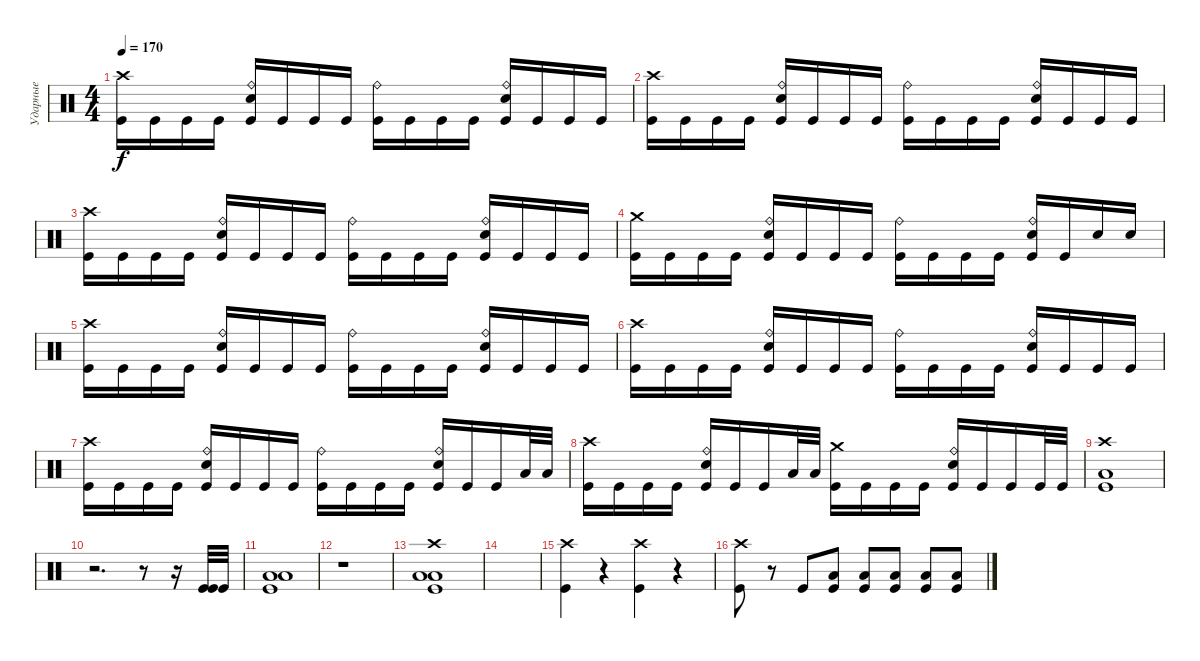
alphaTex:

\track ("Ударные" "Ударные") {instrument percussion}
\staff {score}
\articulation defaults
\ts (4 4)
\tempo 170
\clef neutral
\ks c
("Crash high (hit)" "Kick (hit)").16{dy f} "Kick (hit)".16 "Kick (hit)".16 "Kick (hit)".16 ("Ride (bell)" "Electric Snare (hit)" "Kick (hit)").16 "Kick (hit)".16 "Kick (hit)".16 "Kick (hit)".16 ("Ride (bell)" "Kick (hit)").16 "Kick (hit)".16 "Kick (hit)".16 "Kick (hit)".16 ("Ride (bell)" "Electric Snare (hit)" "Kick (hit)").16 "Kick (hit)".16 "Kick (hit)".16 "Kick (hit)".16 |
("Crash high (hit)" "Kick (hit)").16 "Kick (hit)".16 "Kick (hit)".16 "Kick (hit)".16 ("Ride (bell)" "Electric Snare (hit)" "Kick (hit)").16 "Kick (hit)".16 "Kick (hit)".16 "Kick (hit)".16 ("Ride (bell)" "Kick (hit)").16 "Kick (hit)".16 "Kick (hit)".16 "Kick (hit)".16 ("Ride (bell)" "Electric Snare (hit)" "Kick (hit)").16 "Kick (hit)".16 "Kick (hit)".16 "Kick (hit)".16 |
("Crash high (hit)" "Kick (hit)").16 "Kick (hit)".16 "Kick (hit)".16 "Kick (hit)".16 ("Ride (bell)" "Electric Snare (hit)" "Kick (hit)").16 "Kick (hit)".16 "Kick (hit)".16 "Kick (hit)".16 ("Ride (bell)" "Kick (hit)").16 "Kick (hit)".16 "Kick (hit)".16 "Kick (hit)".16 ("Ride (bell)" "Electric Snare (hit)" "Kick (hit)").16 "Kick (hit)".16 "Kick (hit)".16 "Kick (hit)".16 |
("Crash medium (hit)" "Kick (hit)").16 "Kick (hit)".16 "Kick (hit)".16 "Kick (hit)".16 ("Ride (bell)" "Electric Snare (hit)" "Kick (hit)").16 "Kick (hit)".16 "Kick (hit)".16 "Kick (hit)".16 ("Ride (bell)" "Kick (hit)").16 "Kick (hit)".16 "Kick (hit)".16 "Kick (hit)".16 ("Ride (bell)" "Electric Snare (hit)" "Kick (hit)").16 "Kick (hit)".16 "Electric Snare (hit)".16 "Electric Snare (hit)".16 |
("Crash high (hit)" "Kick (hit)").16 "Kick (hit)".16 "Kick (hit)".16 "Kick (hit)".16 ("Ride (bell)" "Electric Snare (hit)" "Kick (hit)").16 "Kick (hit)".16 "Kick (hit)".16 "Kick (hit)".16 ("Ride (bell)" "Kick (hit)").16 "Kick (hit)".16 "Kick (hit)".16 "Kick (hit)".16 ("Ride (bell)" "Electric Snare (hit)" "Kick (hit)").16 "Kick (hit)".16 "Kick (hit)".16 "Kick (hit)".16 |
("Crash high (hit)" "Kick (hit)").16 "Kick (hit)".16 "Kick (hit)".16 "Kick (hit)".16 ("Ride (bell)" "Electric Snare (hit)" "Kick (hit)").16 "Kick (hit)".16 "Kick (hit)".16 "Kick (hit)".16 ("Ride (bell)" "Kick (hit)").16 "Kick (hit)".16 "Kick (hit)".16 "Kick (hit)".16 ("Ride (bell)" "Electric Snare (hit)" "Kick (hit)").16 "Kick (hit)".16 "Kick (hit)".16 "Kick (hit)".16 |
("Crash high (hit)" "Kick (hit)").16 "Kick (hit)".16 "Kick (hit)".16 "Kick (hit)".16 ("Ride (bell)" "Electric Snare (hit)" "Kick (hit)").16 "Kick (hit)".16 "Kick (hit)".16 "Kick (hit)".16 ("Ride (bell)" "Kick (hit)").16 "Kick (hit)".16 "Kick (hit)".16 "Kick (hit)".16 ("Ride (bell)" "Electric Snare (hit)" "Kick (hit)").16 "Kick (hit)".16 "Kick (hit)".16 "Low Tom (hit)".32 "Low Tom (hit)".32 |
("Crash high (hit)" "Kick (hit)").16 "Kick (hit)".16 "Kick (hit)".16 "Kick (hit)".16 ("Ride (bell)" "Electric Snare (hit)" "Kick (hit)").16 "Kick (hit)".16 "Kick (hit)".16 "Low Tom (hit)".32 "Low Tom (hit)".32 ("Crash medium (hit)" "Kick (hit)").16 "Kick (hit)".16 "Kick (hit)".16 "Kick (hit)".16 ("Ride (bell)" "Electric Snare (hit)" "Kick (hit)").16 "Kick (hit)".16 "Kick (hit)".16 "Kick (hit)".32 "Kick (hit)".32 |
("Crash high (hit)" "Low Tom (hit)" "Kick (hit)").1 |
r.2{d} r.8 r.16 ("Kick (hit)" "Kick (hit)").32 "Kick (hit)".32 |
("Low Tom (hit)" "Low Tom (hit)" "Kick (hit)").1 |
r.1 |
("Crash high (hit)" "Low Tom (hit)" "Low Tom (hit)" "Kick (hit)").1 |
|
("Crash high (hit)" "Kick (hit)").4 r.4 ("Crash high (hit)" "Kick (hit)").4 r.4 |
("Crash high (hit)" "Kick (hit)").8 r.8 "Kick (hit)".8 ("Low Tom (hit)" "Kick (hit)").8 ("Low Tom (hit)" "Kick (hit)").8 ("Low Tom (hit)" "Kick (hit)").8 ("Low Tom (hit)" "Kick (hit)").8 ("Low Tom (hit)" "Kick (hit)").8
